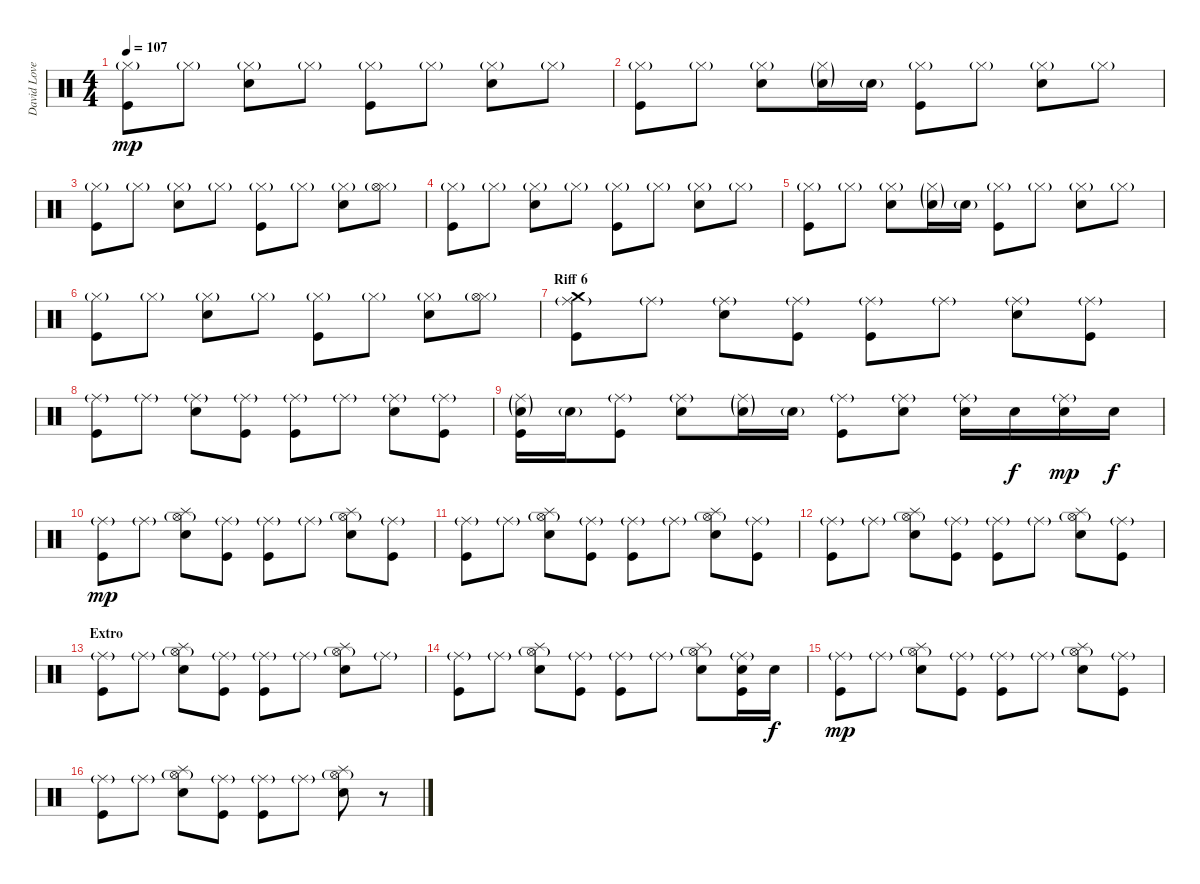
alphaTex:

\track ("David Lovering" "David Love") {instrument percussion}
\staff {score}
\articulation defaults
\ts (4 4)
\tempo 107
\clef neutral
\ks c
("Hi-Hat (closed)"{g} "Kick (hit)").8{dy mp} "Hi-Hat (closed)"{g}.8 ("Hi-Hat (closed)"{g} "Snare (hit) 2").8 "Hi-Hat (closed)"{g}.8 ("Hi-Hat (closed)"{g} "Kick (hit)").8 "Hi-Hat (closed)"{g}.8 ("Hi-Hat (closed)"{g} "Snare (hit) 2").8 "Hi-Hat (closed)"{g}.8 |
("Hi-Hat (closed)"{g} "Kick (hit)").8 "Hi-Hat (closed)"{g}.8 ("Hi-Hat (closed)"{g} "Snare (hit) 2").8 ("Hi-Hat (closed)"{g} "Snare (hit) 2"{g}).16 "Snare (hit) 2"{g}.16 ("Hi-Hat (closed)"{g} "Kick (hit)").8 "Hi-Hat (closed)"{g}.8 ("Hi-Hat (closed)"{g} "Snare (hit) 2").8 "Hi-Hat (closed)"{g}.8 |
("Hi-Hat (closed)"{g} "Kick (hit)").8 "Hi-Hat (closed)"{g}.8 ("Hi-Hat (closed)"{g} "Snare (hit) 2").8 "Hi-Hat (closed)"{g}.8 ("Hi-Hat (closed)"{g} "Kick (hit)").8 "Hi-Hat (closed)"{g}.8 ("Hi-Hat (closed)"{g} "Snare (hit) 2").8 ("Hi-Hat (closed)"{g} "Hi-Hat (open)").8 |
("Hi-Hat (closed)"{g} "Kick (hit)").8 "Hi-Hat (closed)"{g}.8 ("Hi-Hat (closed)"{g} "Snare (hit) 2").8 "Hi-Hat (closed)"{g}.8 ("Hi-Hat (closed)"{g} "Kick (hit)").8 "Hi-Hat (closed)"{g}.8 ("Hi-Hat (closed)"{g} "Snare (hit) 2").8 "Hi-Hat (closed)"{g}.8 |
("Hi-Hat (closed)"{g} "Kick (hit)").8 "Hi-Hat (closed)"{g}.8 ("Hi-Hat (closed)"{g} "Snare (hit) 2").8 ("Hi-Hat (closed)"{g} "Snare (hit) 2"{g}).16 "Snare (hit) 2"{g}.16 ("Hi-Hat (closed)"{g} "Kick (hit)").8 "Hi-Hat (closed)"{g}.8 ("Hi-Hat (closed)"{g} "Snare (hit) 2").8 "Hi-Hat (closed)"{g}.8 |
("Hi-Hat (closed)"{g} "Kick (hit)").8 "Hi-Hat (closed)"{g}.8 ("Hi-Hat (closed)"{g} "Snare (hit) 2").8 "Hi-Hat (closed)"{g}.8 ("Hi-Hat (closed)"{g} "Kick (hit)").8 "Hi-Hat (closed)"{g}.8 ("Hi-Hat (closed)"{g} "Snare (hit) 2").8 ("Hi-Hat (closed)"{g} "Hi-Hat (open)").8 |
\section ("" "Riff 6")
("Ride (middle)"{g} "Crash medium (hit)" "Kick (hit)").8 "Ride (middle)"{g}.8 ("Ride (middle)"{g} "Snare (hit) 2").8 ("Ride (middle)"{g} "Kick (hit)").8 ("Ride (middle)"{g} "Kick (hit)").8 "Ride (middle)"{g}.8 ("Ride (middle)"{g} "Snare (hit) 2").8 ("Ride (middle)"{g} "Kick (hit)").8 |
("Ride (middle)"{g} "Kick (hit)").8 "Ride (middle)"{g}.8 ("Ride (middle)"{g} "Snare (hit) 2").8 ("Ride (middle)"{g} "Kick (hit)").8 ("Ride (middle)"{g} "Kick (hit)").8 "Ride (middle)"{g}.8 ("Ride (middle)"{g} "Snare (hit) 2").8 ("Ride (middle)"{g} "Kick (hit)").8 |
("Ride (middle)"{g} "Snare (hit) 2"{g} "Kick (hit)").16 "Snare (hit) 2"{g}.16 ("Ride (middle)"{g} "Kick (hit)").8 ("Ride (middle)"{g} "Snare (hit) 2").8 ("Ride (middle)"{g} "Snare (hit) 2"{g}).16 "Snare (hit) 2"{g}.16 ("Ride (middle)"{g} "Kick (hit)").8 ("Ride (middle)"{g} "Snare (hit) 2").8 ("Ride (middle)"{g} "Snare (hit) 2").16 "Snare (hit) 2".16{dy f} ("Ride (middle)"{g} "Snare (hit) 2").16{dy mp} "Snare (hit) 2".16{dy f} |
("Ride (middle)"{g} "Kick (hit)").8{dy mp} "Ride (middle)"{g}.8 ("Hi-Hat (open)"{g} "Splash (hit)" "Snare (hit) 2").8 ("Ride (middle)"{g} "Kick (hit)").8 ("Ride (middle)"{g} "Kick (hit)").8 "Ride (middle)"{g}.8 ("Hi-Hat (open)"{g} "Splash (hit)" "Snare (hit) 2").8 ("Ride (middle)"{g} "Kick (hit)").8 |
("Ride (middle)"{g} "Kick (hit)").8 "Ride (middle)"{g}.8 ("Hi-Hat (open)"{g} "Splash (hit)" "Snare (hit) 2").8 ("Ride (middle)"{g} "Kick (hit)").8 ("Ride (middle)"{g} "Kick (hit)").8 "Ride (middle)"{g}.8 ("Hi-Hat (open)"{g} "Splash (hit)" "Snare (hit) 2").8 ("Ride (middle)"{g} "Kick (hit)").8 |
("Ride (middle)"{g} "Kick (hit)").8 "Ride (middle)"{g}.8 ("Hi-Hat (open)"{g} "Splash (hit)" "Snare (hit) 2").8 ("Ride (middle)"{g} "Kick (hit)").8 ("Ride (middle)"{g} "Kick (hit)").8 "Ride (middle)"{g}.8 ("Hi-Hat (open)"{g} "Splash (hit)" "Snare (hit) 2").8 ("Ride (middle)"{g} "Kick (hit)").8 |
\section ("" "Extro")
("Ride (middle)"{g} "Kick (hit)").8 "Ride (middle)"{g}.8 ("Hi-Hat (open)"{g} "Splash (hit)" "Snare (hit) 2").8 ("Ride (middle)"{g} "Kick (hit)").8 ("Ride (middle)"{g} "Kick (hit)").8 "Ride (middle)"{g}.8 ("Hi-Hat (open)"{g} "Splash (hit)" "Snare (hit) 2").8 "Ride (middle)"{g}.8 |
("Ride (middle)"{g} "Kick (hit)").8 "Ride (middle)"{g}.8 ("Hi-Hat (open)"{g} "Splash (hit)" "Snare (hit) 2").8 ("Ride (middle)"{g} "Kick (hit)").8 ("Ride (middle)"{g} "Kick (hit)").8 "Ride (middle)"{g}.8 ("Hi-Hat (open)"{g} "Splash (hit)" "Snare (hit) 2").8 ("Ride (middle)"{g} "Snare (hit) 2" "Kick (hit)").16 "Snare (hit) 2".16{dy f} |
("Ride (middle)"{g} "Kick (hit)").8{dy mp} "Ride (middle)"{g}.8 ("Hi-Hat (open)"{g} "Splash (hit)" "Snare (hit) 2").8 ("Ride (middle)"{g} "Kick (hit)").8 ("Ride (middle)"{g} "Kick (hit)").8 "Ride (middle)"{g}.8 ("Hi-Hat (open)"{g} "Splash (hit)" "Snare (hit) 2").8 ("Ride (middle)"{g} "Kick (hit)").8 |
("Ride (middle)"{g} "Kick (hit)").8 "Ride (middle)"{g}.8 ("Hi-Hat (open)"{g} "Splash (hit)" "Snare (hit) 2").8 ("Ride (middle)"{g} "Kick (hit)").8 ("Ride (middle)"{g} "Kick (hit)").8 "Ride (middle)"{g}.8 ("Hi-Hat (open)"{g} "Splash (hit)" "Snare (hit) 2").8 r.8
